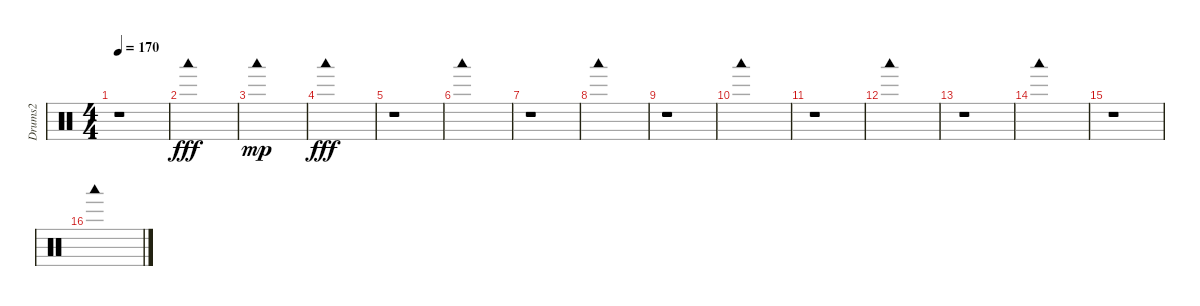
\track ("Drums2" "Drums2") {instrument percussion}
\staff {score}
\articulation defaults
\ts (4 4)
\tempo 170
\clef neutral
\ks c
r.1{dy fff} |
"Woodblock low (hit)".1 |
"Woodblock low (hit)".1{dy mp} |
"Woodblock low (hit)".1{dy fff} |
r.1 |
"Woodblock low (hit)".1 |
r.1 |
"Woodblock low (hit)".1 |
r.1 |
"Woodblock low (hit)".1 |
r.1 |
"Woodblock low (hit)".1 |
r.1 |
"Woodblock low (hit)".1 |
r.1 |
"Woodblock low (hit)".1
